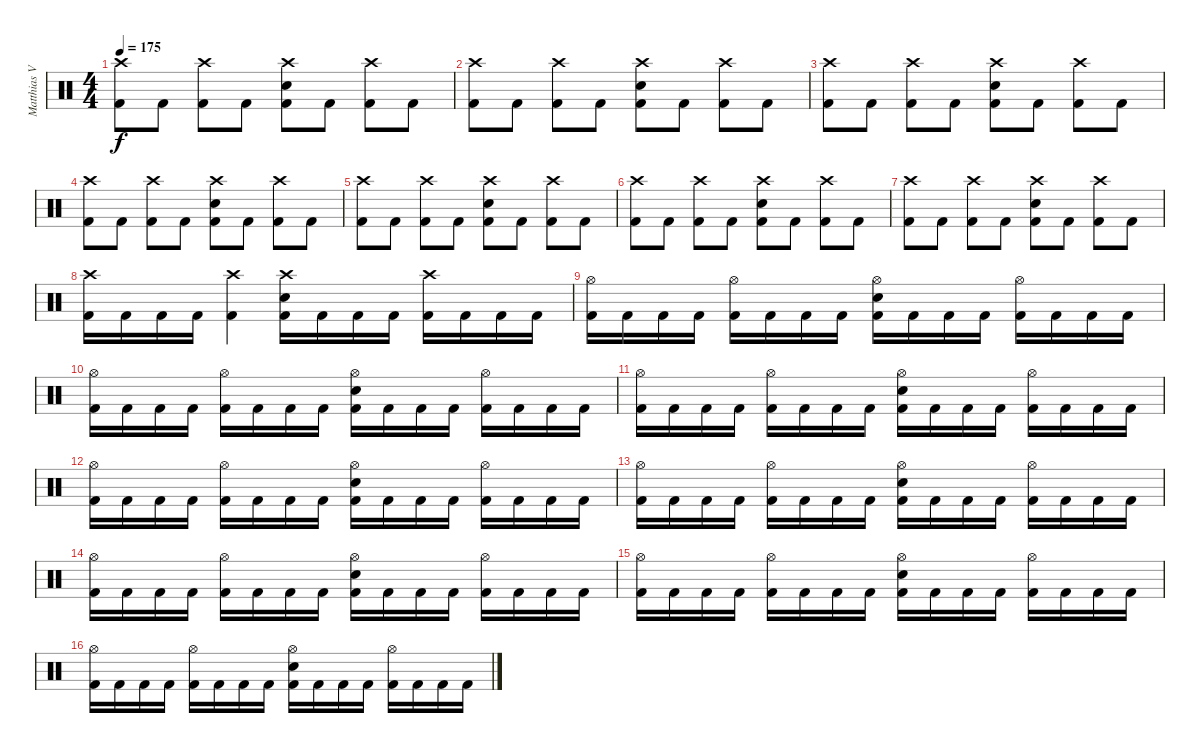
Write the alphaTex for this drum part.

\track ("Matthias Voigt" "Matthias V") {instrument percussion}
\staff {score}
\articulation defaults
\ts (4 4)
\tempo 175
\clef neutral
\ks c
("Crash high (hit)" "Kick (hit) 2").8{dy f} "Kick (hit) 2".8 ("Crash high (hit)" "Kick (hit) 2").8 "Kick (hit) 2".8 ("Crash high (hit)" "Electric Snare (hit)" "Kick (hit) 2").8 "Kick (hit) 2".8 ("Crash high (hit)" "Kick (hit) 2").8 "Kick (hit) 2".8 |
("Crash high (hit)" "Kick (hit) 2").8 "Kick (hit) 2".8 ("Crash high (hit)" "Kick (hit) 2").8 "Kick (hit) 2".8 ("Crash high (hit)" "Electric Snare (hit)" "Kick (hit) 2").8 "Kick (hit) 2".8 ("Crash high (hit)" "Kick (hit) 2").8 "Kick (hit) 2".8 |
("Crash high (hit)" "Kick (hit) 2").8 "Kick (hit) 2".8 ("Crash high (hit)" "Kick (hit) 2").8 "Kick (hit) 2".8 ("Crash high (hit)" "Electric Snare (hit)" "Kick (hit) 2").8 "Kick (hit) 2".8 ("Crash high (hit)" "Kick (hit) 2").8 "Kick (hit) 2".8 |
("Crash high (hit)" "Kick (hit) 2").8 "Kick (hit) 2".8 ("Crash high (hit)" "Kick (hit) 2").8 "Kick (hit) 2".8 ("Crash high (hit)" "Electric Snare (hit)" "Kick (hit) 2").8 "Kick (hit) 2".8 ("Crash high (hit)" "Kick (hit) 2").8 "Kick (hit) 2".8 |
("Crash high (hit)" "Kick (hit) 2").8 "Kick (hit) 2".8 ("Crash high (hit)" "Kick (hit) 2").8 "Kick (hit) 2".8 ("Crash high (hit)" "Electric Snare (hit)" "Kick (hit) 2").8 "Kick (hit) 2".8 ("Crash high (hit)" "Kick (hit) 2").8 "Kick (hit) 2".8 |
("Crash high (hit)" "Kick (hit) 2").8 "Kick (hit) 2".8 ("Crash high (hit)" "Kick (hit) 2").8 "Kick (hit) 2".8 ("Crash high (hit)" "Electric Snare (hit)" "Kick (hit) 2").8 "Kick (hit) 2".8 ("Crash high (hit)" "Kick (hit) 2").8 "Kick (hit) 2".8 |
("Crash high (hit)" "Kick (hit) 2").8 "Kick (hit) 2".8 ("Crash high (hit)" "Kick (hit) 2").8 "Kick (hit) 2".8 ("Crash high (hit)" "Electric Snare (hit)" "Kick (hit) 2").8 "Kick (hit) 2".8 ("Crash high (hit)" "Kick (hit) 2").8 "Kick (hit) 2".8 |
("Crash high (hit)" "Kick (hit) 2").16 "Kick (hit) 2".16 "Kick (hit) 2".16 "Kick (hit) 2".16 ("Crash high (hit)" "Kick (hit) 2").4 ("Crash high (hit)" "Electric Snare (hit)" "Kick (hit) 2").16 "Kick (hit) 2".16 "Kick (hit) 2".16 "Kick (hit) 2".16 ("Crash high (hit)" "Kick (hit) 2").16 "Kick (hit) 2".16 "Kick (hit) 2".16 "Kick (hit) 2".16 |
("Hi-Hat (open)" "Kick (hit) 2").16 "Kick (hit) 2".16 "Kick (hit) 2".16 "Kick (hit) 2".16 ("Hi-Hat (open)" "Kick (hit) 2").16 "Kick (hit) 2".16 "Kick (hit) 2".16 "Kick (hit) 2".16 ("Hi-Hat (open)" "Electric Snare (hit)" "Kick (hit) 2").16 "Kick (hit) 2".16 "Kick (hit) 2".16 "Kick (hit) 2".16 ("Hi-Hat (open)" "Kick (hit) 2").16 "Kick (hit) 2".16 "Kick (hit) 2".16 "Kick (hit) 2".16 |
("Hi-Hat (open)" "Kick (hit) 2").16 "Kick (hit) 2".16 "Kick (hit) 2".16 "Kick (hit) 2".16 ("Hi-Hat (open)" "Kick (hit) 2").16 "Kick (hit) 2".16 "Kick (hit) 2".16 "Kick (hit) 2".16 ("Hi-Hat (open)" "Electric Snare (hit)" "Kick (hit) 2").16 "Kick (hit) 2".16 "Kick (hit) 2".16 "Kick (hit) 2".16 ("Hi-Hat (open)" "Kick (hit) 2").16 "Kick (hit) 2".16 "Kick (hit) 2".16 "Kick (hit) 2".16 |
("Hi-Hat (open)" "Kick (hit) 2").16 "Kick (hit) 2".16 "Kick (hit) 2".16 "Kick (hit) 2".16 ("Hi-Hat (open)" "Kick (hit) 2").16 "Kick (hit) 2".16 "Kick (hit) 2".16 "Kick (hit) 2".16 ("Hi-Hat (open)" "Electric Snare (hit)" "Kick (hit) 2").16 "Kick (hit) 2".16 "Kick (hit) 2".16 "Kick (hit) 2".16 ("Hi-Hat (open)" "Kick (hit) 2").16 "Kick (hit) 2".16 "Kick (hit) 2".16 "Kick (hit) 2".16 |
("Hi-Hat (open)" "Kick (hit) 2").16 "Kick (hit) 2".16 "Kick (hit) 2".16 "Kick (hit) 2".16 ("Hi-Hat (open)" "Kick (hit) 2").16 "Kick (hit) 2".16 "Kick (hit) 2".16 "Kick (hit) 2".16 ("Hi-Hat (open)" "Electric Snare (hit)" "Kick (hit) 2").16 "Kick (hit) 2".16 "Kick (hit) 2".16 "Kick (hit) 2".16 ("Hi-Hat (open)" "Kick (hit) 2").16 "Kick (hit) 2".16 "Kick (hit) 2".16 "Kick (hit) 2".16 |
("Hi-Hat (open)" "Kick (hit) 2").16 "Kick (hit) 2".16 "Kick (hit) 2".16 "Kick (hit) 2".16 ("Hi-Hat (open)" "Kick (hit) 2").16 "Kick (hit) 2".16 "Kick (hit) 2".16 "Kick (hit) 2".16 ("Hi-Hat (open)" "Electric Snare (hit)" "Kick (hit) 2").16 "Kick (hit) 2".16 "Kick (hit) 2".16 "Kick (hit) 2".16 ("Hi-Hat (open)" "Kick (hit) 2").16 "Kick (hit) 2".16 "Kick (hit) 2".16 "Kick (hit) 2".16 |
("Hi-Hat (open)" "Kick (hit) 2").16 "Kick (hit) 2".16 "Kick (hit) 2".16 "Kick (hit) 2".16 ("Hi-Hat (open)" "Kick (hit) 2").16 "Kick (hit) 2".16 "Kick (hit) 2".16 "Kick (hit) 2".16 ("Hi-Hat (open)" "Electric Snare (hit)" "Kick (hit) 2").16 "Kick (hit) 2".16 "Kick (hit) 2".16 "Kick (hit) 2".16 ("Hi-Hat (open)" "Kick (hit) 2").16 "Kick (hit) 2".16 "Kick (hit) 2".16 "Kick (hit) 2".16 |
("Hi-Hat (open)" "Kick (hit) 2").16 "Kick (hit) 2".16 "Kick (hit) 2".16 "Kick (hit) 2".16 ("Hi-Hat (open)" "Kick (hit) 2").16 "Kick (hit) 2".16 "Kick (hit) 2".16 "Kick (hit) 2".16 ("Hi-Hat (open)" "Electric Snare (hit)" "Kick (hit) 2").16 "Kick (hit) 2".16 "Kick (hit) 2".16 "Kick (hit) 2".16 ("Hi-Hat (open)" "Kick (hit) 2").16 "Kick (hit) 2".16 "Kick (hit) 2".16 "Kick (hit) 2".16 |
("Hi-Hat (open)" "Kick (hit) 2").16 "Kick (hit) 2".16 "Kick (hit) 2".16 "Kick (hit) 2".16 ("Hi-Hat (open)" "Kick (hit) 2").16 "Kick (hit) 2".16 "Kick (hit) 2".16 "Kick (hit) 2".16 ("Hi-Hat (open)" "Electric Snare (hit)" "Kick (hit) 2").16 "Kick (hit) 2".16 "Kick (hit) 2".16 "Kick (hit) 2".16 ("Hi-Hat (open)" "Kick (hit) 2").16 "Kick (hit) 2".16 "Kick (hit) 2".16 "Kick (hit) 2".16
